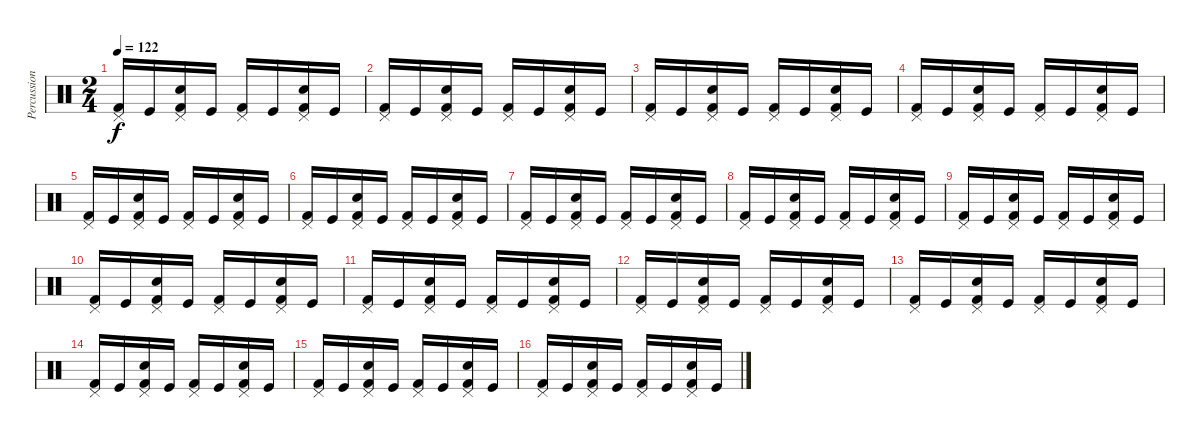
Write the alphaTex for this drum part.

\track ("Percussions" "Percussion") {instrument percussion}
\staff {score}
\articulation defaults
\ts (2 4)
\tempo 122
\clef neutral
\ks c
("Pedal Hi-Hat (hit)" "Kick (hit) 2").16{dy f} "Kick (hit)".16 ("Pedal Hi-Hat (hit)" "Snare (hit) 2" "Kick (hit) 2").16 "Kick (hit)".16 ("Pedal Hi-Hat (hit)" "Kick (hit) 2").16 "Kick (hit)".16 ("Pedal Hi-Hat (hit)" "Snare (hit) 2" "Kick (hit) 2").16 "Kick (hit)".16 |
("Pedal Hi-Hat (hit)" "Kick (hit) 2").16 "Kick (hit)".16 ("Pedal Hi-Hat (hit)" "Snare (hit) 2" "Kick (hit) 2").16 "Kick (hit)".16 ("Pedal Hi-Hat (hit)" "Kick (hit) 2").16 "Kick (hit)".16 ("Pedal Hi-Hat (hit)" "Snare (hit) 2" "Kick (hit) 2").16 "Kick (hit)".16 |
("Pedal Hi-Hat (hit)" "Kick (hit) 2").16 "Kick (hit)".16 ("Pedal Hi-Hat (hit)" "Snare (hit) 2" "Kick (hit) 2").16 "Kick (hit)".16 ("Pedal Hi-Hat (hit)" "Kick (hit) 2").16 "Kick (hit)".16 ("Pedal Hi-Hat (hit)" "Snare (hit) 2" "Kick (hit) 2").16 "Kick (hit)".16 |
("Pedal Hi-Hat (hit)" "Kick (hit) 2").16 "Kick (hit)".16 ("Pedal Hi-Hat (hit)" "Snare (hit) 2" "Kick (hit) 2").16 "Kick (hit)".16 ("Pedal Hi-Hat (hit)" "Kick (hit) 2").16 "Kick (hit)".16 ("Pedal Hi-Hat (hit)" "Snare (hit) 2" "Kick (hit) 2").16 "Kick (hit)".16 |
("Pedal Hi-Hat (hit)" "Kick (hit) 2").16 "Kick (hit)".16 ("Pedal Hi-Hat (hit)" "Snare (hit) 2" "Kick (hit) 2").16 "Kick (hit)".16 ("Pedal Hi-Hat (hit)" "Kick (hit) 2").16 "Kick (hit)".16 ("Pedal Hi-Hat (hit)" "Snare (hit) 2" "Kick (hit) 2").16 "Kick (hit)".16 |
("Pedal Hi-Hat (hit)" "Kick (hit) 2").16 "Kick (hit)".16 ("Pedal Hi-Hat (hit)" "Snare (hit) 2" "Kick (hit) 2").16 "Kick (hit)".16 ("Pedal Hi-Hat (hit)" "Kick (hit) 2").16 "Kick (hit)".16 ("Pedal Hi-Hat (hit)" "Snare (hit) 2" "Kick (hit) 2").16 "Kick (hit)".16 |
("Pedal Hi-Hat (hit)" "Kick (hit) 2").16 "Kick (hit)".16 ("Pedal Hi-Hat (hit)" "Snare (hit) 2" "Kick (hit) 2").16 "Kick (hit)".16 ("Pedal Hi-Hat (hit)" "Kick (hit) 2").16 "Kick (hit)".16 ("Pedal Hi-Hat (hit)" "Snare (hit) 2" "Kick (hit) 2").16 "Kick (hit)".16 |
("Pedal Hi-Hat (hit)" "Kick (hit) 2").16 "Kick (hit)".16 ("Pedal Hi-Hat (hit)" "Snare (hit) 2" "Kick (hit) 2").16 "Kick (hit)".16 ("Pedal Hi-Hat (hit)" "Kick (hit) 2").16 "Kick (hit)".16 ("Pedal Hi-Hat (hit)" "Snare (hit) 2" "Kick (hit) 2").16 "Kick (hit)".16 |
("Pedal Hi-Hat (hit)" "Kick (hit) 2").16 "Kick (hit)".16 ("Pedal Hi-Hat (hit)" "Snare (hit) 2" "Kick (hit) 2").16 "Kick (hit)".16 ("Pedal Hi-Hat (hit)" "Kick (hit) 2").16 "Kick (hit)".16 ("Pedal Hi-Hat (hit)" "Snare (hit) 2" "Kick (hit) 2").16 "Kick (hit)".16 |
("Pedal Hi-Hat (hit)" "Kick (hit) 2").16 "Kick (hit)".16 ("Pedal Hi-Hat (hit)" "Snare (hit) 2" "Kick (hit) 2").16 "Kick (hit)".16 ("Pedal Hi-Hat (hit)" "Kick (hit) 2").16 "Kick (hit)".16 ("Pedal Hi-Hat (hit)" "Snare (hit) 2" "Kick (hit) 2").16 "Kick (hit)".16 |
("Pedal Hi-Hat (hit)" "Kick (hit) 2").16 "Kick (hit)".16 ("Pedal Hi-Hat (hit)" "Snare (hit) 2" "Kick (hit) 2").16 "Kick (hit)".16 ("Pedal Hi-Hat (hit)" "Kick (hit) 2").16 "Kick (hit)".16 ("Pedal Hi-Hat (hit)" "Snare (hit) 2" "Kick (hit) 2").16 "Kick (hit)".16 |
("Pedal Hi-Hat (hit)" "Kick (hit) 2").16 "Kick (hit)".16 ("Pedal Hi-Hat (hit)" "Snare (hit) 2" "Kick (hit) 2").16 "Kick (hit)".16 ("Pedal Hi-Hat (hit)" "Kick (hit) 2").16 "Kick (hit)".16 ("Pedal Hi-Hat (hit)" "Snare (hit) 2" "Kick (hit) 2").16 "Kick (hit)".16 |
("Pedal Hi-Hat (hit)" "Kick (hit) 2").16 "Kick (hit)".16 ("Pedal Hi-Hat (hit)" "Snare (hit) 2" "Kick (hit) 2").16 "Kick (hit)".16 ("Pedal Hi-Hat (hit)" "Kick (hit) 2").16 "Kick (hit)".16 ("Pedal Hi-Hat (hit)" "Snare (hit) 2" "Kick (hit) 2").16 "Kick (hit)".16 |
("Pedal Hi-Hat (hit)" "Kick (hit) 2").16 "Kick (hit)".16 ("Pedal Hi-Hat (hit)" "Snare (hit) 2" "Kick (hit) 2").16 "Kick (hit)".16 ("Pedal Hi-Hat (hit)" "Kick (hit) 2").16 "Kick (hit)".16 ("Pedal Hi-Hat (hit)" "Snare (hit) 2" "Kick (hit) 2").16 "Kick (hit)".16 |
("Pedal Hi-Hat (hit)" "Kick (hit) 2").16 "Kick (hit)".16 ("Pedal Hi-Hat (hit)" "Snare (hit) 2" "Kick (hit) 2").16 "Kick (hit)".16 ("Pedal Hi-Hat (hit)" "Kick (hit) 2").16 "Kick (hit)".16 ("Pedal Hi-Hat (hit)" "Snare (hit) 2" "Kick (hit) 2").16 "Kick (hit)".16 |
("Pedal Hi-Hat (hit)" "Kick (hit) 2").16 "Kick (hit)".16 ("Pedal Hi-Hat (hit)" "Snare (hit) 2" "Kick (hit) 2").16 "Kick (hit)".16 ("Pedal Hi-Hat (hit)" "Kick (hit) 2").16 "Kick (hit)".16 ("Pedal Hi-Hat (hit)" "Snare (hit) 2" "Kick (hit) 2").16 "Kick (hit)".16
